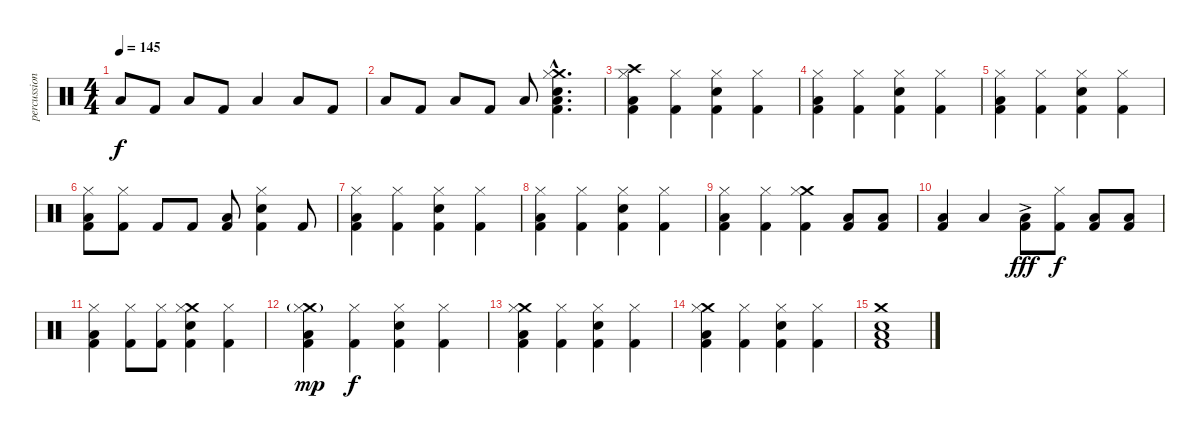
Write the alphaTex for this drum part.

\track ("percussion" "percussion") {instrument percussion}
\staff {score}
\articulation defaults
\ts (4 4)
\tempo 145
\clef neutral
\ks c "Low Tom (hit)".8{dy f} "Kick (hit) 2".8 "Low Tom (hit)".8 "Kick (hit) 2".8 "Low Tom (hit)".4 "Low Tom (hit)".8 "Kick (hit) 2".8
|
"Low Tom (hit)".8 "Kick (hit) 2".8 "Low Tom (hit)".8 "Kick (hit) 2".8 "Low Tom (hit)".8 ("Crash medium (hit)"{hac} "Snare (hit) 2"{hac} "Kick (hit) 2"{hac} "Low Tom (hit)"{hac} "Hi-Hat (closed)"{hac}).4{d} |
("Crash high (hit)" "Kick (hit) 2" "Low Tom (hit)" "Hi-Hat (closed)").4 ("Kick (hit) 2" "Hi-Hat (closed)").4 ("Snare (hit) 2" "Kick (hit) 2" "Hi-Hat (closed)").4 ("Kick (hit) 2" "Hi-Hat (closed)").4 |
("Kick (hit) 2" "Low Tom (hit)" "Hi-Hat (closed)").4 ("Kick (hit) 2" "Hi-Hat (closed)").4 ("Snare (hit) 2" "Kick (hit) 2" "Hi-Hat (closed)").4 ("Kick (hit) 2" "Hi-Hat (closed)").4 |
("Kick (hit) 2" "Low Tom (hit)" "Hi-Hat (closed)").4 ("Kick (hit) 2" "Hi-Hat (closed)").4 ("Snare (hit) 2" "Kick (hit) 2" "Hi-Hat (closed)").4 ("Kick (hit) 2" "Hi-Hat (closed)").4 |
("Kick (hit) 2" "Low Tom (hit)" "Hi-Hat (closed)").8 ("Kick (hit) 2" "Hi-Hat (closed)").8 "Kick (hit) 2".8 "Kick (hit) 2".8 ("Kick (hit) 2" "Low Tom (hit)").8 ("Snare (hit) 2" "Kick (hit) 2" "Hi-Hat (closed)").4 "Kick (hit) 2".8 |
("Kick (hit) 2" "Low Tom (hit)" "Hi-Hat (closed)").4 ("Kick (hit) 2" "Hi-Hat (closed)").4 ("Snare (hit) 2" "Kick (hit) 2" "Hi-Hat (closed)").4 ("Kick (hit) 2" "Hi-Hat (closed)").4 |
("Kick (hit) 2" "Low Tom (hit)" "Hi-Hat (closed)").4 ("Kick (hit) 2" "Hi-Hat (closed)").4 ("Snare (hit) 2" "Kick (hit) 2" "Hi-Hat (closed)").4 ("Kick (hit) 2" "Hi-Hat (closed)").4 |
("Kick (hit) 2" "Low Tom (hit)" "Hi-Hat (closed)").4 ("Kick (hit) 2" "Hi-Hat (closed)").4 ("Crash medium (hit)" "Kick (hit) 2" "Hi-Hat (closed)").4 ("Kick (hit) 2" "Low Tom (hit)").8 ("Kick (hit) 2" "Low Tom (hit)").8 |
("Kick (hit) 2" "Low Tom (hit)").4 "Low Tom (hit)".4 ("Kick (hit) 2" "Low Tom (hit)"{ac}).8{dy fff} ("Kick (hit) 2" "Hi-Hat (closed)").8{dy f} ("Kick (hit) 2" "Low Tom (hit)").8 ("Kick (hit) 2" "Low Tom (hit)").8 |
("Kick (hit) 2" "Low Tom (hit)" "Hi-Hat (closed)").4 ("Kick (hit) 2" "Hi-Hat (closed)").8 ("Kick (hit) 2" "Hi-Hat (closed)").8 ("Crash medium (hit)" "Snare (hit) 2" "Kick (hit) 2" "Hi-Hat (closed)").4 ("Kick (hit) 2" "Hi-Hat (closed)").4 |
("Crash medium (hit)"{g} "Kick (hit) 2" "Low Tom (hit)" "Hi-Hat (closed)").4{dy mp} ("Kick (hit) 2" "Hi-Hat (closed)").4{dy f} ("Snare (hit) 2" "Kick (hit) 2" "Hi-Hat (closed)").4 ("Kick (hit) 2" "Hi-Hat (closed)").4 |
("Crash medium (hit)" "Kick (hit) 2" "Low Tom (hit)" "Hi-Hat (closed)").4 ("Kick (hit) 2" "Hi-Hat (closed)").4 ("Snare (hit) 2" "Kick (hit) 2" "Hi-Hat (closed)").4 ("Kick (hit) 2" "Hi-Hat (closed)").4 |
("Crash medium (hit)" "Kick (hit) 2" "Low Tom (hit)" "Hi-Hat (closed)").4 ("Kick (hit) 2" "Hi-Hat (closed)").4 ("Snare (hit) 2" "Kick (hit) 2" "Hi-Hat (closed)").4 ("Kick (hit) 2" "Hi-Hat (closed)").4 |
("Crash medium (hit)" "Kick (hit) 2" "Low Tom (hit)" "Snare (hit) 2").1
